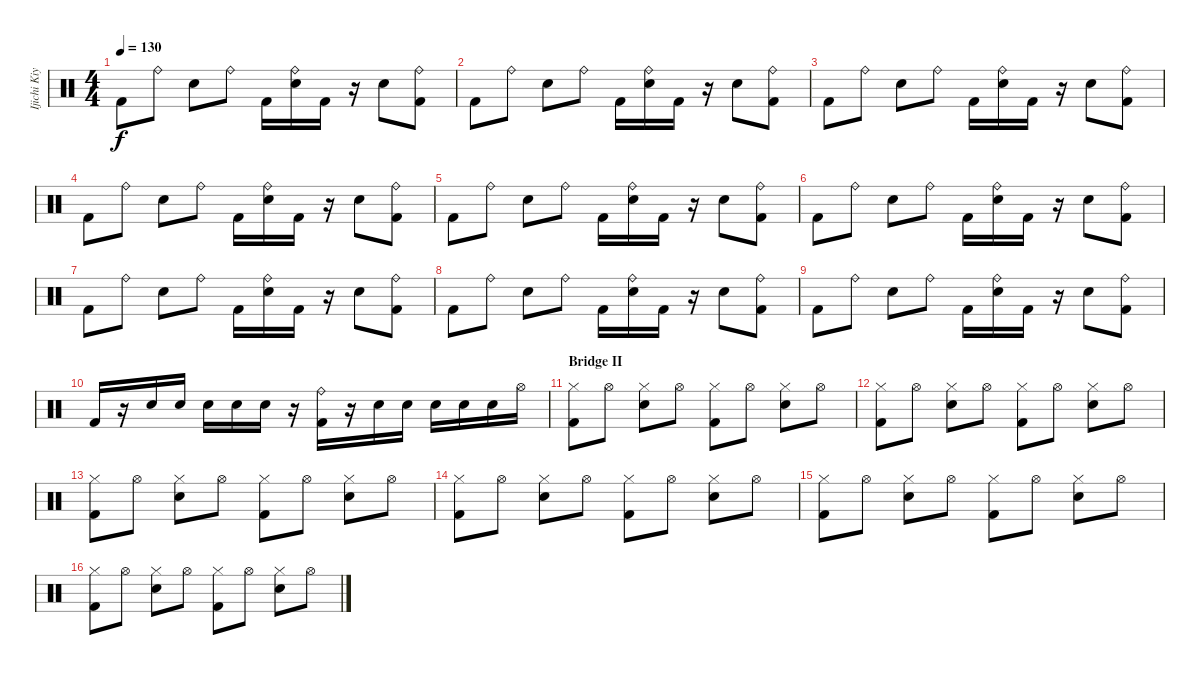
\track ("Ijichi Kiyoshi (Drums)" "Ijichi Kiy") {instrument percussion}
\staff {score}
\articulation defaults
\ts (4 4)
\tempo 130
\clef neutral
\ks c "Kick (hit) 2".8{dy f} "Ride (bell)".8 "Snare (hit) 2".8 "Ride (bell)".8 "Kick (hit) 2".16
("Ride (bell)" "Snare (hit) 2").16 "Kick (hit) 2".16 r.16 "Snare (hit) 2".8 ("Ride (bell)" "Kick (hit) 2").8 |
"Kick (hit) 2".8 "Ride (bell)".8 "Snare (hit) 2".8 "Ride (bell)".8 "Kick (hit) 2".16 ("Ride (bell)" "Snare (hit) 2").16 "Kick (hit) 2".16 r.16 "Snare (hit) 2".8 ("Ride (bell)" "Kick (hit) 2").8 |
"Kick (hit) 2".8 "Ride (bell)".8 "Snare (hit) 2".8 "Ride (bell)".8 "Kick (hit) 2".16 ("Ride (bell)" "Snare (hit) 2").16 "Kick (hit) 2".16 r.16 "Snare (hit) 2".8 ("Ride (bell)" "Kick (hit) 2").8 |
"Kick (hit) 2".8 "Ride (bell)".8 "Snare (hit) 2".8 "Ride (bell)".8 "Kick (hit) 2".16 ("Ride (bell)" "Snare (hit) 2").16 "Kick (hit) 2".16 r.16 "Snare (hit) 2".8 ("Ride (bell)" "Kick (hit) 2").8 |
"Kick (hit) 2".8 "Ride (bell)".8 "Snare (hit) 2".8 "Ride (bell)".8 "Kick (hit) 2".16 ("Ride (bell)" "Snare (hit) 2").16 "Kick (hit) 2".16 r.16 "Snare (hit) 2".8 ("Ride (bell)" "Kick (hit) 2").8 |
"Kick (hit) 2".8 "Ride (bell)".8 "Snare (hit) 2".8 "Ride (bell)".8 "Kick (hit) 2".16 ("Ride (bell)" "Snare (hit) 2").16 "Kick (hit) 2".16 r.16 "Snare (hit) 2".8 ("Ride (bell)" "Kick (hit) 2").8 |
"Kick (hit) 2".8 "Ride (bell)".8 "Snare (hit) 2".8 "Ride (bell)".8 "Kick (hit) 2".16 ("Ride (bell)" "Snare (hit) 2").16 "Kick (hit) 2".16 r.16 "Snare (hit) 2".8 ("Ride (bell)" "Kick (hit) 2").8 |
"Kick (hit) 2".8 "Ride (bell)".8 "Snare (hit) 2".8 "Ride (bell)".8 "Kick (hit) 2".16 ("Ride (bell)" "Snare (hit) 2").16 "Kick (hit) 2".16 r.16 "Snare (hit) 2".8 ("Ride (bell)" "Kick (hit) 2").8 |
"Kick (hit) 2".8 "Ride (bell)".8 "Snare (hit) 2".8 "Ride (bell)".8 "Kick (hit) 2".16 ("Ride (bell)" "Snare (hit) 2").16 "Kick (hit) 2".16 r.16 "Snare (hit) 2".8 ("Ride (bell)" "Kick (hit) 2").8 |
"Kick (hit) 2".16 r.16 "Snare (hit) 2".16 "Snare (hit) 2".16 "Snare (hit) 2".16 "Snare (hit) 2".16 "Snare (hit) 2".16 r.16 ("Ride (bell)" "Kick (hit) 2").16 r.16 "Snare (hit) 2".16 "Snare (hit) 2".16 "Snare (hit) 2".16 "Snare (hit) 2".16 "Snare (hit) 2".16 "Hi-Hat (open)".16 |
\section ("" "Bridge II")
("Hi-Hat (closed)" "Kick (hit) 2").8 "Hi-Hat (open)".8 ("Hi-Hat (closed)" "Snare (hit) 2").8 "Hi-Hat (open)".8 ("Hi-Hat (closed)" "Kick (hit) 2").8 "Hi-Hat (open)".8 ("Hi-Hat (closed)" "Snare (hit) 2").8 "Hi-Hat (open)".8 |
("Hi-Hat (closed)" "Kick (hit) 2").8 "Hi-Hat (open)".8 ("Hi-Hat (closed)" "Snare (hit) 2").8 "Hi-Hat (open)".8 ("Hi-Hat (closed)" "Kick (hit) 2").8 "Hi-Hat (open)".8 ("Hi-Hat (closed)" "Snare (hit) 2").8 "Hi-Hat (open)".8 |
("Hi-Hat (closed)" "Kick (hit) 2").8 "Hi-Hat (open)".8 ("Hi-Hat (closed)" "Snare (hit) 2").8 "Hi-Hat (open)".8 ("Hi-Hat (closed)" "Kick (hit) 2").8 "Hi-Hat (open)".8 ("Hi-Hat (closed)" "Snare (hit) 2").8 "Hi-Hat (open)".8 |
("Hi-Hat (closed)" "Kick (hit) 2").8 "Hi-Hat (open)".8 ("Hi-Hat (closed)" "Snare (hit) 2").8 "Hi-Hat (open)".8 ("Hi-Hat (closed)" "Kick (hit) 2").8 "Hi-Hat (open)".8 ("Hi-Hat (closed)" "Snare (hit) 2").8 "Hi-Hat (open)".8 |
("Hi-Hat (closed)" "Kick (hit) 2").8 "Hi-Hat (open)".8 ("Hi-Hat (closed)" "Snare (hit) 2").8 "Hi-Hat (open)".8 ("Hi-Hat (closed)" "Kick (hit) 2").8 "Hi-Hat (open)".8 ("Hi-Hat (closed)" "Snare (hit) 2").8 "Hi-Hat (open)".8 |
("Hi-Hat (closed)" "Kick (hit) 2").8 "Hi-Hat (open)".8 ("Hi-Hat (closed)" "Snare (hit) 2").8 "Hi-Hat (open)".8 ("Hi-Hat (closed)" "Kick (hit) 2").8 "Hi-Hat (open)".8 ("Hi-Hat (closed)" "Snare (hit) 2").8 "Hi-Hat (open)".8
